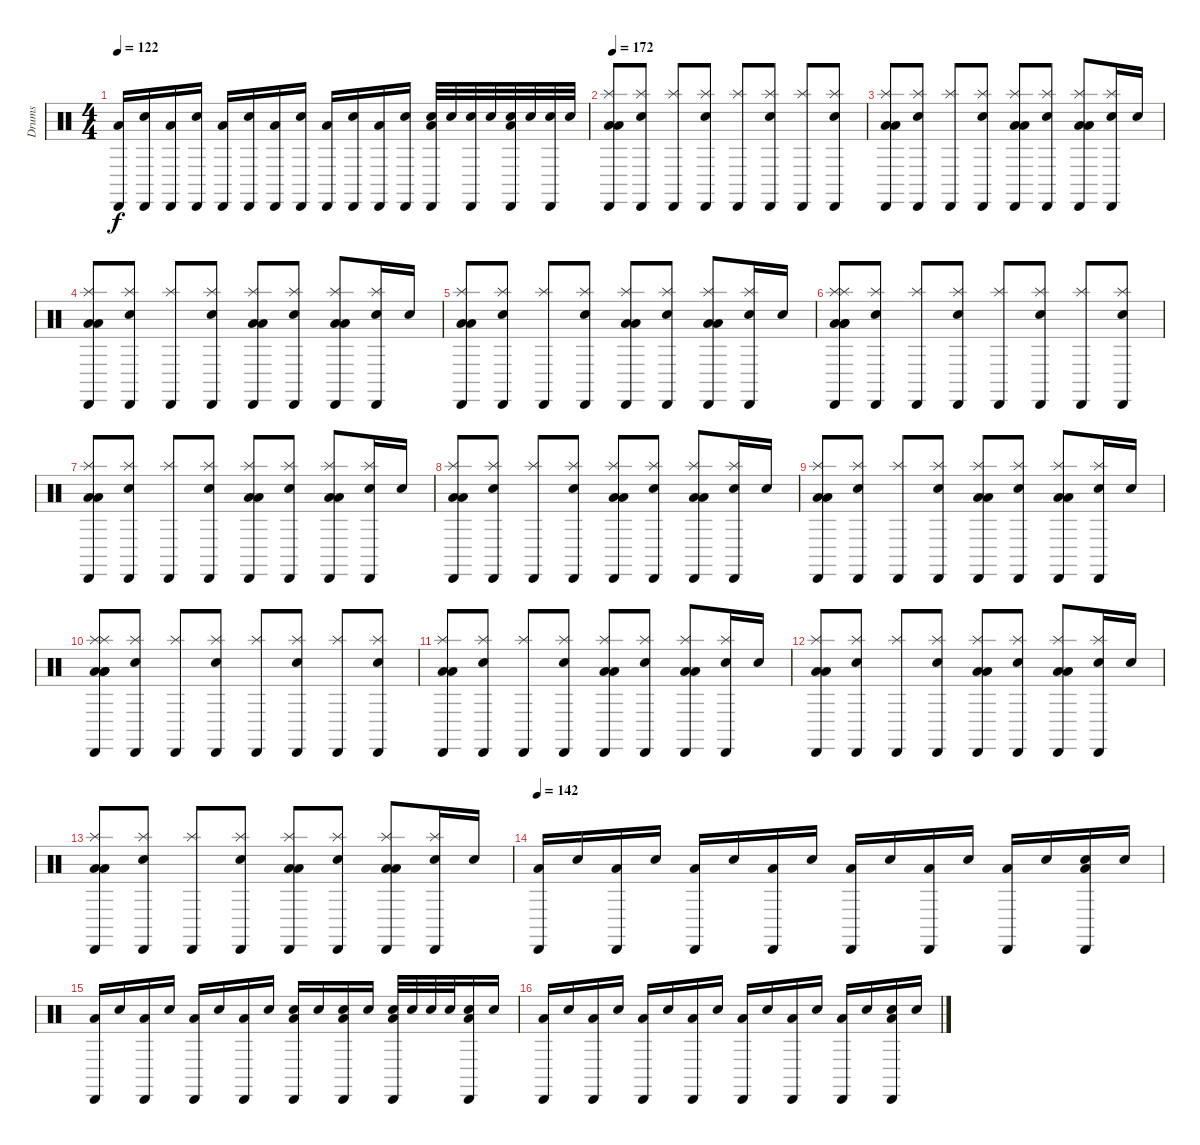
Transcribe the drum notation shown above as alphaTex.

\track ("Drums" "Drums") {instrument percussion}
\staff {score}
\articulation defaults
\ts (4 4)
\tempo 122
\clef neutral
\ks c
("Cabasa (hit)" "Low Tom (hit)").16{dy f} ("Cabasa (hit)" "Electric Snare (hit)").16 ("Cabasa (hit)" "Low Tom (hit)").16 ("Cabasa (hit)" "Electric Snare (hit)").16 ("Cabasa (hit)" "Low Tom (hit)").16 ("Cabasa (hit)" "Electric Snare (hit)").16 ("Cabasa (hit)" "Low Tom (hit)").16 ("Cabasa (hit)" "Electric Snare (hit)").16 ("Cabasa (hit)" "Low Tom (hit)").16 ("Cabasa (hit)" "Electric Snare (hit)").16 ("Cabasa (hit)" "Low Tom (hit)").16 ("Cabasa (hit)" "Electric Snare (hit)").16 ("Electric Snare (hit)" "Cabasa (hit)" "Low Tom (hit)").32 "Electric Snare (hit)".32 ("Cabasa (hit)" "Electric Snare (hit)").32 "Electric Snare (hit)".32 ("Electric Snare (hit)" "Cabasa (hit)" "Low Tom (hit)").32 "Electric Snare (hit)".32 ("Cabasa (hit)" "Electric Snare (hit)").32 "Electric Snare (hit)".32 |
\tempo 172
("Splash (hit)" "Low Floor Tom (hit)" "Low Tom (hit)" "Cabasa (hit)").8 ("Splash (hit)" "Electric Snare (hit)" "Cabasa (hit)").8 ("Splash (hit)" "Cabasa (hit)").8 ("Splash (hit)" "Electric Snare (hit)" "Cabasa (hit)").8 ("Splash (hit)" "Cabasa (hit)").8 ("Splash (hit)" "Electric Snare (hit)" "Cabasa (hit)").8 ("Splash (hit)" "Cabasa (hit)").8 ("Splash (hit)" "Electric Snare (hit)" "Cabasa (hit)").8 |
("Splash (hit)" "Low Floor Tom (hit)" "Low Tom (hit)" "Cabasa (hit)").8 ("Splash (hit)" "Electric Snare (hit)" "Cabasa (hit)").8 ("Splash (hit)" "Cabasa (hit)").8 ("Splash (hit)" "Electric Snare (hit)" "Cabasa (hit)").8 ("Splash (hit)" "Low Floor Tom (hit)" "Low Tom (hit)" "Cabasa (hit)").8 ("Splash (hit)" "Electric Snare (hit)" "Cabasa (hit)").8 ("Splash (hit)" "Low Floor Tom (hit)" "Low Tom (hit)" "Cabasa (hit)").8 ("Splash (hit)" "Electric Snare (hit)" "Cabasa (hit)").16 "Electric Snare (hit)".16 |
("Splash (hit)" "Low Floor Tom (hit)" "Low Tom (hit)" "Cabasa (hit)").8 ("Splash (hit)" "Electric Snare (hit)" "Cabasa (hit)").8 ("Splash (hit)" "Cabasa (hit)").8 ("Splash (hit)" "Electric Snare (hit)" "Cabasa (hit)").8 ("Splash (hit)" "Low Floor Tom (hit)" "Low Tom (hit)" "Cabasa (hit)").8 ("Splash (hit)" "Electric Snare (hit)" "Cabasa (hit)").8 ("Splash (hit)" "Low Floor Tom (hit)" "Low Tom (hit)" "Cabasa (hit)").8 ("Splash (hit)" "Electric Snare (hit)" "Cabasa (hit)").16 "Electric Snare (hit)".16 |
("Splash (hit)" "Low Floor Tom (hit)" "Low Tom (hit)" "Cabasa (hit)").8 ("Splash (hit)" "Electric Snare (hit)" "Cabasa (hit)").8 ("Splash (hit)" "Cabasa (hit)").8 ("Splash (hit)" "Electric Snare (hit)" "Cabasa (hit)").8 ("Splash (hit)" "Low Floor Tom (hit)" "Low Tom (hit)" "Cabasa (hit)").8 ("Splash (hit)" "Electric Snare (hit)" "Cabasa (hit)").8 ("Splash (hit)" "Low Floor Tom (hit)" "Low Tom (hit)" "Cabasa (hit)").8 ("Splash (hit)" "Electric Snare (hit)" "Cabasa (hit)").16 "Electric Snare (hit)".16 |
("Splash (hit)" "Low Floor Tom (hit)" "Low Tom (hit)" "Cabasa (hit)" "Splash (hit)" "Low Floor Tom (hit)").8 ("Splash (hit)" "Electric Snare (hit)" "Cabasa (hit)").8 ("Splash (hit)" "Cabasa (hit)").8 ("Splash (hit)" "Electric Snare (hit)" "Cabasa (hit)").8 ("Splash (hit)" "Cabasa (hit)").8 ("Splash (hit)" "Electric Snare (hit)" "Cabasa (hit)").8 ("Splash (hit)" "Cabasa (hit)").8 ("Splash (hit)" "Electric Snare (hit)" "Cabasa (hit)").8 |
("Splash (hit)" "Low Floor Tom (hit)" "Low Tom (hit)" "Cabasa (hit)").8 ("Splash (hit)" "Electric Snare (hit)" "Cabasa (hit)").8 ("Splash (hit)" "Cabasa (hit)").8 ("Splash (hit)" "Electric Snare (hit)" "Cabasa (hit)").8 ("Splash (hit)" "Low Floor Tom (hit)" "Low Tom (hit)" "Cabasa (hit)").8 ("Splash (hit)" "Electric Snare (hit)" "Cabasa (hit)").8 ("Splash (hit)" "Low Floor Tom (hit)" "Low Tom (hit)" "Cabasa (hit)").8 ("Splash (hit)" "Electric Snare (hit)" "Cabasa (hit)").16 "Electric Snare (hit)".16 |
("Splash (hit)" "Low Floor Tom (hit)" "Low Tom (hit)" "Cabasa (hit)").8 ("Splash (hit)" "Electric Snare (hit)" "Cabasa (hit)").8 ("Splash (hit)" "Cabasa (hit)").8 ("Splash (hit)" "Electric Snare (hit)" "Cabasa (hit)").8 ("Splash (hit)" "Low Floor Tom (hit)" "Low Tom (hit)" "Cabasa (hit)").8 ("Splash (hit)" "Electric Snare (hit)" "Cabasa (hit)").8 ("Splash (hit)" "Low Floor Tom (hit)" "Low Tom (hit)" "Cabasa (hit)").8 ("Splash (hit)" "Electric Snare (hit)" "Cabasa (hit)").16 "Electric Snare (hit)".16 |
("Splash (hit)" "Low Floor Tom (hit)" "Low Tom (hit)" "Cabasa (hit)").8 ("Splash (hit)" "Electric Snare (hit)" "Cabasa (hit)").8 ("Splash (hit)" "Cabasa (hit)").8 ("Splash (hit)" "Electric Snare (hit)" "Cabasa (hit)").8 ("Splash (hit)" "Low Floor Tom (hit)" "Low Tom (hit)" "Cabasa (hit)").8 ("Splash (hit)" "Electric Snare (hit)" "Cabasa (hit)").8 ("Splash (hit)" "Low Floor Tom (hit)" "Low Tom (hit)" "Cabasa (hit)").8 ("Splash (hit)" "Electric Snare (hit)" "Cabasa (hit)").16 "Electric Snare (hit)".16 |
("Splash (hit)" "Low Floor Tom (hit)" "Low Tom (hit)" "Cabasa (hit)" "Splash (hit)" "Low Floor Tom (hit)").8 ("Splash (hit)" "Electric Snare (hit)" "Cabasa (hit)").8 ("Splash (hit)" "Cabasa (hit)").8 ("Splash (hit)" "Electric Snare (hit)" "Cabasa (hit)").8 ("Splash (hit)" "Cabasa (hit)").8 ("Splash (hit)" "Electric Snare (hit)" "Cabasa (hit)").8 ("Splash (hit)" "Cabasa (hit)").8 ("Splash (hit)" "Electric Snare (hit)" "Cabasa (hit)").8 |
("Splash (hit)" "Low Floor Tom (hit)" "Low Tom (hit)" "Cabasa (hit)").8 ("Splash (hit)" "Electric Snare (hit)" "Cabasa (hit)").8 ("Splash (hit)" "Cabasa (hit)").8 ("Splash (hit)" "Electric Snare (hit)" "Cabasa (hit)").8 ("Splash (hit)" "Low Floor Tom (hit)" "Low Tom (hit)" "Cabasa (hit)").8 ("Splash (hit)" "Electric Snare (hit)" "Cabasa (hit)").8 ("Splash (hit)" "Low Floor Tom (hit)" "Low Tom (hit)" "Cabasa (hit)").8 ("Splash (hit)" "Electric Snare (hit)" "Cabasa (hit)").16 "Electric Snare (hit)".16 |
("Splash (hit)" "Low Floor Tom (hit)" "Low Tom (hit)" "Cabasa (hit)").8 ("Splash (hit)" "Electric Snare (hit)" "Cabasa (hit)").8 ("Splash (hit)" "Cabasa (hit)").8 ("Splash (hit)" "Electric Snare (hit)" "Cabasa (hit)").8 ("Splash (hit)" "Low Floor Tom (hit)" "Low Tom (hit)" "Cabasa (hit)").8 ("Splash (hit)" "Electric Snare (hit)" "Cabasa (hit)").8 ("Splash (hit)" "Low Floor Tom (hit)" "Low Tom (hit)" "Cabasa (hit)").8 ("Splash (hit)" "Electric Snare (hit)" "Cabasa (hit)").16 "Electric Snare (hit)".16 |
("Splash (hit)" "Low Floor Tom (hit)" "Low Tom (hit)" "Cabasa (hit)").8 ("Splash (hit)" "Electric Snare (hit)" "Cabasa (hit)").8 ("Splash (hit)" "Cabasa (hit)").8 ("Splash (hit)" "Electric Snare (hit)" "Cabasa (hit)").8 ("Splash (hit)" "Low Floor Tom (hit)" "Low Tom (hit)" "Cabasa (hit)").8 ("Splash (hit)" "Electric Snare (hit)" "Cabasa (hit)").8 ("Splash (hit)" "Low Floor Tom (hit)" "Low Tom (hit)" "Cabasa (hit)").8 ("Splash (hit)" "Electric Snare (hit)" "Cabasa (hit)").16 "Electric Snare (hit)".16 |
\tempo 142
("Low Tom (hit)" "Cabasa (hit)").16 "Electric Snare (hit)".16 ("Low Tom (hit)" "Cabasa (hit)").16 "Electric Snare (hit)".16 ("Low Tom (hit)" "Cabasa (hit)").16 "Electric Snare (hit)".16 ("Low Tom (hit)" "Cabasa (hit)").16 "Electric Snare (hit)".16 ("Low Tom (hit)" "Cabasa (hit)").16 "Electric Snare (hit)".16 ("Low Tom (hit)" "Cabasa (hit)").16 "Electric Snare (hit)".16 ("Low Tom (hit)" "Cabasa (hit)").16 "Electric Snare (hit)".16 ("Low Tom (hit)" "Electric Snare (hit)" "Cabasa (hit)").16 "Electric Snare (hit)".16 |
("Low Tom (hit)" "Cabasa (hit)").16 "Electric Snare (hit)".16 ("Low Tom (hit)" "Cabasa (hit)").16 "Electric Snare (hit)".16 ("Low Tom (hit)" "Cabasa (hit)").16 "Electric Snare (hit)".16 ("Low Tom (hit)" "Cabasa (hit)").16 "Electric Snare (hit)".16 ("Electric Snare (hit)" "Low Tom (hit)" "Cabasa (hit)").16 "Electric Snare (hit)".16 ("Electric Snare (hit)" "Low Tom (hit)" "Cabasa (hit)").16 "Electric Snare (hit)".16 ("Electric Snare (hit)" "Low Tom (hit)" "Cabasa (hit)").32 "Electric Snare (hit)".32 "Electric Snare (hit)".32 "Electric Snare (hit)".32 ("Low Tom (hit)" "Electric Snare (hit)" "Cabasa (hit)").16 "Electric Snare (hit)".16 |
("Low Tom (hit)" "Cabasa (hit)").16 "Electric Snare (hit)".16 ("Low Tom (hit)" "Cabasa (hit)").16 "Electric Snare (hit)".16 ("Low Tom (hit)" "Cabasa (hit)").16 "Electric Snare (hit)".16 ("Low Tom (hit)" "Cabasa (hit)").16 "Electric Snare (hit)".16 ("Low Tom (hit)" "Cabasa (hit)").16 "Electric Snare (hit)".16 ("Low Tom (hit)" "Cabasa (hit)").16 "Electric Snare (hit)".16 ("Low Tom (hit)" "Cabasa (hit)").16 "Electric Snare (hit)".16 ("Low Tom (hit)" "Electric Snare (hit)" "Cabasa (hit)").16 "Electric Snare (hit)".16
